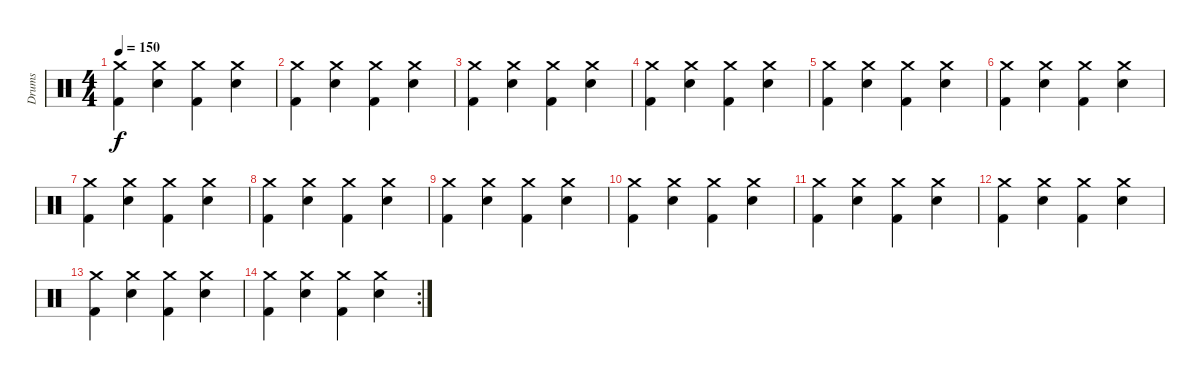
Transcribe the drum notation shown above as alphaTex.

\track ("Drums" "Drums") {instrument percussion}
\staff {score}
\articulation defaults
\ts (4 4)
\tempo 150
\clef neutral
\ks c
("Kick (hit) 2" "Crash medium (hit)").4{dy f} ("Snare (hit) 2" "Crash medium (hit)").4 ("Kick (hit) 2" "Crash medium (hit)").4 ("Snare (hit) 2" "Crash medium (hit)").4 |
("Kick (hit) 2" "Crash medium (hit)").4 ("Snare (hit) 2" "Crash medium (hit)").4 ("Kick (hit) 2" "Crash medium (hit)").4 ("Snare (hit) 2" "Crash medium (hit)").4 |
("Kick (hit) 2" "Crash medium (hit)").4 ("Snare (hit) 2" "Crash medium (hit)").4 ("Kick (hit) 2" "Crash medium (hit)").4 ("Snare (hit) 2" "Crash medium (hit)").4 |
("Kick (hit) 2" "Crash medium (hit)").4 ("Snare (hit) 2" "Crash medium (hit)").4 ("Kick (hit) 2" "Crash medium (hit)").4 ("Snare (hit) 2" "Crash medium (hit)").4 |
("Kick (hit) 2" "Crash medium (hit)").4 ("Snare (hit) 2" "Crash medium (hit)").4 ("Kick (hit) 2" "Crash medium (hit)").4 ("Snare (hit) 2" "Crash medium (hit)").4 |
("Kick (hit) 2" "Crash medium (hit)").4 ("Snare (hit) 2" "Crash medium (hit)").4 ("Kick (hit) 2" "Crash medium (hit)").4 ("Snare (hit) 2" "Crash medium (hit)").4 |
("Kick (hit) 2" "Crash medium (hit)").4 ("Snare (hit) 2" "Crash medium (hit)").4 ("Kick (hit) 2" "Crash medium (hit)").4 ("Snare (hit) 2" "Crash medium (hit)").4 |
("Kick (hit) 2" "Crash medium (hit)").4 ("Snare (hit) 2" "Crash medium (hit)").4 ("Kick (hit) 2" "Crash medium (hit)").4 ("Snare (hit) 2" "Crash medium (hit)").4 |
("Kick (hit) 2" "Crash medium (hit)").4 ("Snare (hit) 2" "Crash medium (hit)").4 ("Kick (hit) 2" "Crash medium (hit)").4 ("Snare (hit) 2" "Crash medium (hit)").4 |
("Kick (hit) 2" "Crash medium (hit)").4 ("Snare (hit) 2" "Crash medium (hit)").4 ("Kick (hit) 2" "Crash medium (hit)").4 ("Snare (hit) 2" "Crash medium (hit)").4 |
("Kick (hit) 2" "Crash medium (hit)").4 ("Snare (hit) 2" "Crash medium (hit)").4 ("Kick (hit) 2" "Crash medium (hit)").4 ("Snare (hit) 2" "Crash medium (hit)").4 |
("Kick (hit) 2" "Crash medium (hit)").4 ("Snare (hit) 2" "Crash medium (hit)").4 ("Kick (hit) 2" "Crash medium (hit)").4 ("Snare (hit) 2" "Crash medium (hit)").4 |
("Kick (hit) 2" "Crash medium (hit)").4 ("Snare (hit) 2" "Crash medium (hit)").4 ("Kick (hit) 2" "Crash medium (hit)").4 ("Snare (hit) 2" "Crash medium (hit)").4 |
\rc 2
("Kick (hit) 2" "Crash medium (hit)").4 ("Snare (hit) 2" "Crash medium (hit)").4 ("Kick (hit) 2" "Crash medium (hit)").4 ("Snare (hit) 2" "Crash medium (hit)").4
